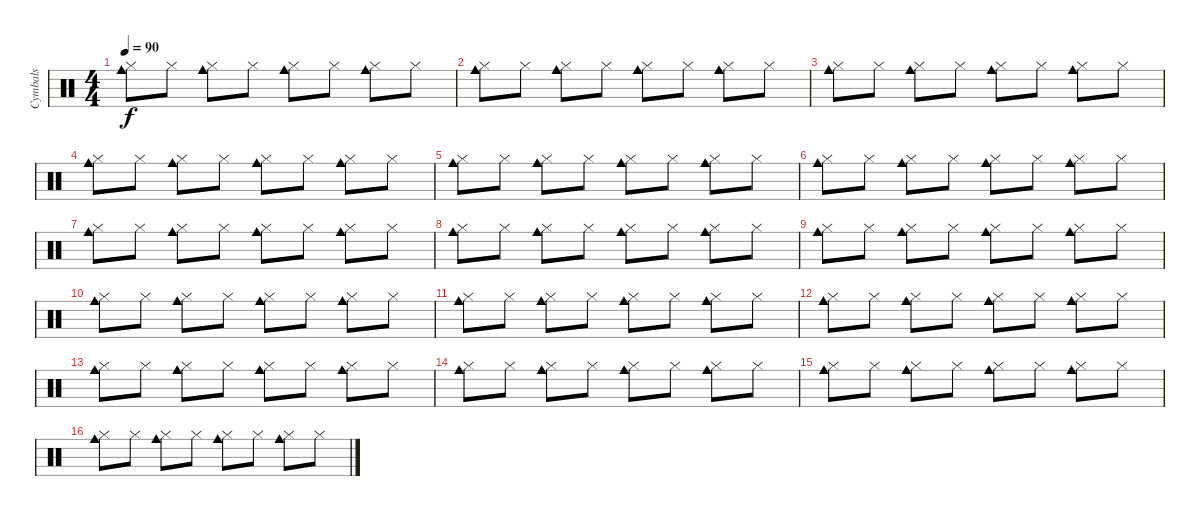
\track ("Cymbals" "Cymbals") {instrument percussion}
\staff {score}
\articulation defaults
\ts (4 4)
\tempo 90
\clef neutral
\ks c
("Cowbell medium (hit)" "Hi-Hat (closed)").8{dy f} "Hi-Hat (closed)".8 ("Cowbell medium (hit)" "Hi-Hat (closed)").8 "Hi-Hat (closed)".8 ("Cowbell medium (hit)" "Hi-Hat (closed)").8 "Hi-Hat (closed)".8 ("Cowbell medium (hit)" "Hi-Hat (closed)").8 "Hi-Hat (closed)".8 |
("Cowbell medium (hit)" "Hi-Hat (closed)").8 "Hi-Hat (closed)".8 ("Cowbell medium (hit)" "Hi-Hat (closed)").8 "Hi-Hat (closed)".8 ("Cowbell medium (hit)" "Hi-Hat (closed)").8 "Hi-Hat (closed)".8 ("Cowbell medium (hit)" "Hi-Hat (closed)").8 "Hi-Hat (closed)".8 |
("Cowbell medium (hit)" "Hi-Hat (closed)").8 "Hi-Hat (closed)".8 ("Cowbell medium (hit)" "Hi-Hat (closed)").8 "Hi-Hat (closed)".8 ("Cowbell medium (hit)" "Hi-Hat (closed)").8 "Hi-Hat (closed)".8 ("Cowbell medium (hit)" "Hi-Hat (closed)").8 "Hi-Hat (closed)".8 |
("Cowbell medium (hit)" "Hi-Hat (closed)").8 "Hi-Hat (closed)".8 ("Cowbell medium (hit)" "Hi-Hat (closed)").8 "Hi-Hat (closed)".8 ("Cowbell medium (hit)" "Hi-Hat (closed)").8 "Hi-Hat (closed)".8 ("Cowbell medium (hit)" "Hi-Hat (closed)").8 "Hi-Hat (closed)".8 |
("Cowbell medium (hit)" "Hi-Hat (closed)").8 "Hi-Hat (closed)".8 ("Cowbell medium (hit)" "Hi-Hat (closed)").8 "Hi-Hat (closed)".8 ("Cowbell medium (hit)" "Hi-Hat (closed)").8 "Hi-Hat (closed)".8 ("Cowbell medium (hit)" "Hi-Hat (closed)").8 "Hi-Hat (closed)".8 |
("Cowbell medium (hit)" "Hi-Hat (closed)").8 "Hi-Hat (closed)".8 ("Cowbell medium (hit)" "Hi-Hat (closed)").8 "Hi-Hat (closed)".8 ("Cowbell medium (hit)" "Hi-Hat (closed)").8 "Hi-Hat (closed)".8 ("Cowbell medium (hit)" "Hi-Hat (closed)").8 "Hi-Hat (closed)".8 |
("Cowbell medium (hit)" "Hi-Hat (closed)").8 "Hi-Hat (closed)".8 ("Cowbell medium (hit)" "Hi-Hat (closed)").8 "Hi-Hat (closed)".8 ("Cowbell medium (hit)" "Hi-Hat (closed)").8 "Hi-Hat (closed)".8 ("Cowbell medium (hit)" "Hi-Hat (closed)").8 "Hi-Hat (closed)".8 |
("Cowbell medium (hit)" "Hi-Hat (closed)").8 "Hi-Hat (closed)".8 ("Cowbell medium (hit)" "Hi-Hat (closed)").8 "Hi-Hat (closed)".8 ("Cowbell medium (hit)" "Hi-Hat (closed)").8 "Hi-Hat (closed)".8 ("Cowbell medium (hit)" "Hi-Hat (closed)").8 "Hi-Hat (closed)".8 |
("Cowbell medium (hit)" "Hi-Hat (closed)").8 "Hi-Hat (closed)".8 ("Cowbell medium (hit)" "Hi-Hat (closed)").8 "Hi-Hat (closed)".8 ("Cowbell medium (hit)" "Hi-Hat (closed)").8 "Hi-Hat (closed)".8 ("Cowbell medium (hit)" "Hi-Hat (closed)").8 "Hi-Hat (closed)".8 |
("Cowbell medium (hit)" "Hi-Hat (closed)").8 "Hi-Hat (closed)".8 ("Cowbell medium (hit)" "Hi-Hat (closed)").8 "Hi-Hat (closed)".8 ("Cowbell medium (hit)" "Hi-Hat (closed)").8 "Hi-Hat (closed)".8 ("Cowbell medium (hit)" "Hi-Hat (closed)").8 "Hi-Hat (closed)".8 |
("Cowbell medium (hit)" "Hi-Hat (closed)").8 "Hi-Hat (closed)".8 ("Cowbell medium (hit)" "Hi-Hat (closed)").8 "Hi-Hat (closed)".8 ("Cowbell medium (hit)" "Hi-Hat (closed)").8 "Hi-Hat (closed)".8 ("Cowbell medium (hit)" "Hi-Hat (closed)").8 "Hi-Hat (closed)".8 |
("Cowbell medium (hit)" "Hi-Hat (closed)").8 "Hi-Hat (closed)".8 ("Cowbell medium (hit)" "Hi-Hat (closed)").8 "Hi-Hat (closed)".8 ("Cowbell medium (hit)" "Hi-Hat (closed)").8 "Hi-Hat (closed)".8 ("Cowbell medium (hit)" "Hi-Hat (closed)").8 "Hi-Hat (closed)".8 |
("Cowbell medium (hit)" "Hi-Hat (closed)").8 "Hi-Hat (closed)".8 ("Cowbell medium (hit)" "Hi-Hat (closed)").8 "Hi-Hat (closed)".8 ("Cowbell medium (hit)" "Hi-Hat (closed)").8 "Hi-Hat (closed)".8 ("Cowbell medium (hit)" "Hi-Hat (closed)").8 "Hi-Hat (closed)".8 |
("Cowbell medium (hit)" "Hi-Hat (closed)").8 "Hi-Hat (closed)".8 ("Cowbell medium (hit)" "Hi-Hat (closed)").8 "Hi-Hat (closed)".8 ("Cowbell medium (hit)" "Hi-Hat (closed)").8 "Hi-Hat (closed)".8 ("Cowbell medium (hit)" "Hi-Hat (closed)").8 "Hi-Hat (closed)".8 |
("Cowbell medium (hit)" "Hi-Hat (closed)").8 "Hi-Hat (closed)".8 ("Cowbell medium (hit)" "Hi-Hat (closed)").8 "Hi-Hat (closed)".8 ("Cowbell medium (hit)" "Hi-Hat (closed)").8 "Hi-Hat (closed)".8 ("Cowbell medium (hit)" "Hi-Hat (closed)").8 "Hi-Hat (closed)".8 |
("Cowbell medium (hit)" "Hi-Hat (closed)").8 "Hi-Hat (closed)".8 ("Cowbell medium (hit)" "Hi-Hat (closed)").8 "Hi-Hat (closed)".8 ("Cowbell medium (hit)" "Hi-Hat (closed)").8 "Hi-Hat (closed)".8 ("Cowbell medium (hit)" "Hi-Hat (closed)").8 "Hi-Hat (closed)".8
